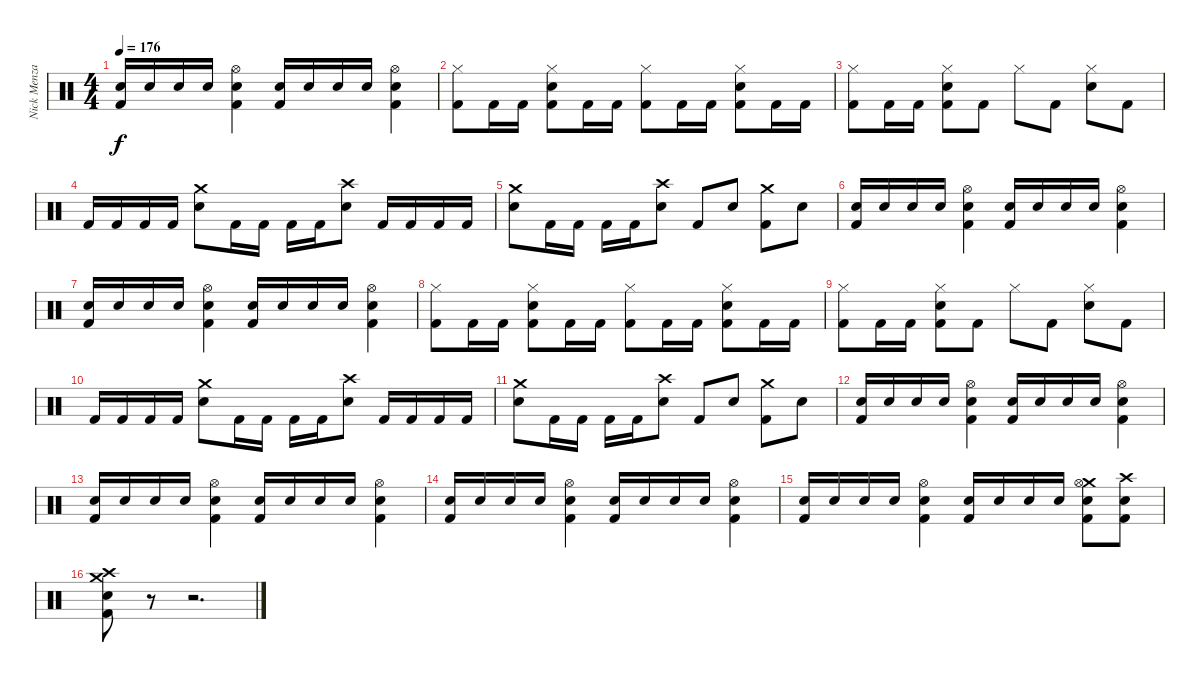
\track ("Nick Menza" "Nick Menza") {instrument percussion}
\staff {score}
\articulation defaults
\ts (4 4)
\tempo 176
\clef neutral
\ks c
("Kick (hit) 2" "Electric Snare (hit)").16{dy f} "Electric Snare (hit)".16 "Electric Snare (hit)".16 "Electric Snare (hit)".16 ("Kick (hit) 2" "Electric Snare (hit)" "Hi-Hat (open)").4 ("Kick (hit) 2" "Electric Snare (hit)").16 "Electric Snare (hit)".16 "Electric Snare (hit)".16 "Electric Snare (hit)".16 ("Kick (hit) 2" "Electric Snare (hit)" "Hi-Hat (open)").4 |
("Hi-Hat (closed)" "Kick (hit) 2").8 "Kick (hit) 2".16 "Kick (hit) 2".16 ("Hi-Hat (closed)" "Electric Snare (hit)" "Kick (hit) 2").8 "Kick (hit) 2".16 "Kick (hit) 2".16 ("Hi-Hat (closed)" "Kick (hit) 2").8 "Kick (hit) 2".16 "Kick (hit) 2".16 ("Hi-Hat (closed)" "Electric Snare (hit)" "Kick (hit) 2").8 "Kick (hit) 2".16 "Kick (hit) 2".16 |
("Hi-Hat (closed)" "Kick (hit) 2").8 "Kick (hit) 2".16 "Kick (hit) 2".16 ("Hi-Hat (closed)" "Electric Snare (hit)" "Kick (hit) 2").8 "Kick (hit) 2".8 "Hi-Hat (closed)".8 "Kick (hit) 2".8 ("Hi-Hat (closed)" "Electric Snare (hit)").8 "Kick (hit) 2".8 |
"Kick (hit) 2".16 "Kick (hit) 2".16 "Kick (hit) 2".16 "Kick (hit) 2".16 ("Crash medium (hit)" "Electric Snare (hit)").8 "Kick (hit) 2".16 "Kick (hit) 2".16 "Kick (hit) 2".16 "Kick (hit) 2".16 ("Crash high (hit)" "Electric Snare (hit)").8 "Kick (hit) 2".16 "Kick (hit) 2".16 "Kick (hit) 2".16 "Kick (hit) 2".16 |
("Crash medium (hit)" "Electric Snare (hit)").8 "Kick (hit) 2".16 "Kick (hit) 2".16 "Kick (hit) 2".16 "Kick (hit) 2".16 ("Crash high (hit)" "Electric Snare (hit)").8 "Kick (hit) 2".8 "Electric Snare (hit)".8 ("Crash medium (hit)" "Kick (hit) 2").8 "Electric Snare (hit)".8 |
("Kick (hit) 2" "Electric Snare (hit)").16 "Electric Snare (hit)".16 "Electric Snare (hit)".16 "Electric Snare (hit)".16 ("Kick (hit) 2" "Electric Snare (hit)" "Hi-Hat (open)").4 ("Kick (hit) 2" "Electric Snare (hit)").16 "Electric Snare (hit)".16 "Electric Snare (hit)".16 "Electric Snare (hit)".16 ("Kick (hit) 2" "Electric Snare (hit)" "Hi-Hat (open)").4 |
("Kick (hit) 2" "Electric Snare (hit)").16 "Electric Snare (hit)".16 "Electric Snare (hit)".16 "Electric Snare (hit)".16 ("Kick (hit) 2" "Electric Snare (hit)" "Hi-Hat (open)").4 ("Kick (hit) 2" "Electric Snare (hit)").16 "Electric Snare (hit)".16 "Electric Snare (hit)".16 "Electric Snare (hit)".16 ("Kick (hit) 2" "Electric Snare (hit)" "Hi-Hat (open)").4 |
("Hi-Hat (closed)" "Kick (hit) 2").8 "Kick (hit) 2".16 "Kick (hit) 2".16 ("Hi-Hat (closed)" "Electric Snare (hit)" "Kick (hit) 2").8 "Kick (hit) 2".16 "Kick (hit) 2".16 ("Hi-Hat (closed)" "Kick (hit) 2").8 "Kick (hit) 2".16 "Kick (hit) 2".16 ("Hi-Hat (closed)" "Electric Snare (hit)" "Kick (hit) 2").8 "Kick (hit) 2".16 "Kick (hit) 2".16 |
("Hi-Hat (closed)" "Kick (hit) 2").8 "Kick (hit) 2".16 "Kick (hit) 2".16 ("Hi-Hat (closed)" "Electric Snare (hit)" "Kick (hit) 2").8 "Kick (hit) 2".8 "Hi-Hat (closed)".8 "Kick (hit) 2".8 ("Hi-Hat (closed)" "Electric Snare (hit)").8 "Kick (hit) 2".8 |
"Kick (hit) 2".16 "Kick (hit) 2".16 "Kick (hit) 2".16 "Kick (hit) 2".16 ("Crash medium (hit)" "Electric Snare (hit)").8 "Kick (hit) 2".16 "Kick (hit) 2".16 "Kick (hit) 2".16 "Kick (hit) 2".16 ("Crash high (hit)" "Electric Snare (hit)").8 "Kick (hit) 2".16 "Kick (hit) 2".16 "Kick (hit) 2".16 "Kick (hit) 2".16 |
("Crash medium (hit)" "Electric Snare (hit)").8 "Kick (hit) 2".16 "Kick (hit) 2".16 "Kick (hit) 2".16 "Kick (hit) 2".16 ("Crash high (hit)" "Electric Snare (hit)").8 "Kick (hit) 2".8 "Electric Snare (hit)".8 ("Crash medium (hit)" "Kick (hit) 2").8 "Electric Snare (hit)".8 |
("Kick (hit) 2" "Electric Snare (hit)").16 "Electric Snare (hit)".16 "Electric Snare (hit)".16 "Electric Snare (hit)".16 ("Kick (hit) 2" "Electric Snare (hit)" "Hi-Hat (open)").4 ("Kick (hit) 2" "Electric Snare (hit)").16 "Electric Snare (hit)".16 "Electric Snare (hit)".16 "Electric Snare (hit)".16 ("Kick (hit) 2" "Electric Snare (hit)" "Hi-Hat (open)").4 |
("Kick (hit) 2" "Electric Snare (hit)").16 "Electric Snare (hit)".16 "Electric Snare (hit)".16 "Electric Snare (hit)".16 ("Kick (hit) 2" "Electric Snare (hit)" "Hi-Hat (open)").4 ("Kick (hit) 2" "Electric Snare (hit)").16 "Electric Snare (hit)".16 "Electric Snare (hit)".16 "Electric Snare (hit)".16 ("Kick (hit) 2" "Electric Snare (hit)" "Hi-Hat (open)").4 |
("Kick (hit) 2" "Electric Snare (hit)").16 "Electric Snare (hit)".16 "Electric Snare (hit)".16 "Electric Snare (hit)".16 ("Kick (hit) 2" "Electric Snare (hit)" "Hi-Hat (open)").4 ("Kick (hit) 2" "Electric Snare (hit)").16 "Electric Snare (hit)".16 "Electric Snare (hit)".16 "Electric Snare (hit)".16 ("Kick (hit) 2" "Electric Snare (hit)" "Hi-Hat (open)").4 |
("Kick (hit) 2" "Electric Snare (hit)").16 "Electric Snare (hit)".16 "Electric Snare (hit)".16 "Electric Snare (hit)".16 ("Kick (hit) 2" "Electric Snare (hit)" "Hi-Hat (open)").4 ("Kick (hit) 2" "Electric Snare (hit)").16 "Electric Snare (hit)".16 "Electric Snare (hit)".16 "Electric Snare (hit)".16 ("Crash medium (hit)" "Kick (hit) 2" "Electric Snare (hit)" "Hi-Hat (open)").8 ("Crash high (hit)" "Kick (hit) 2" "Electric Snare (hit)").8 |
("Crash medium (hit)" "Crash high (hit)" "Kick (hit) 2" "Electric Snare (hit)").8 r.8 r.2{d}
